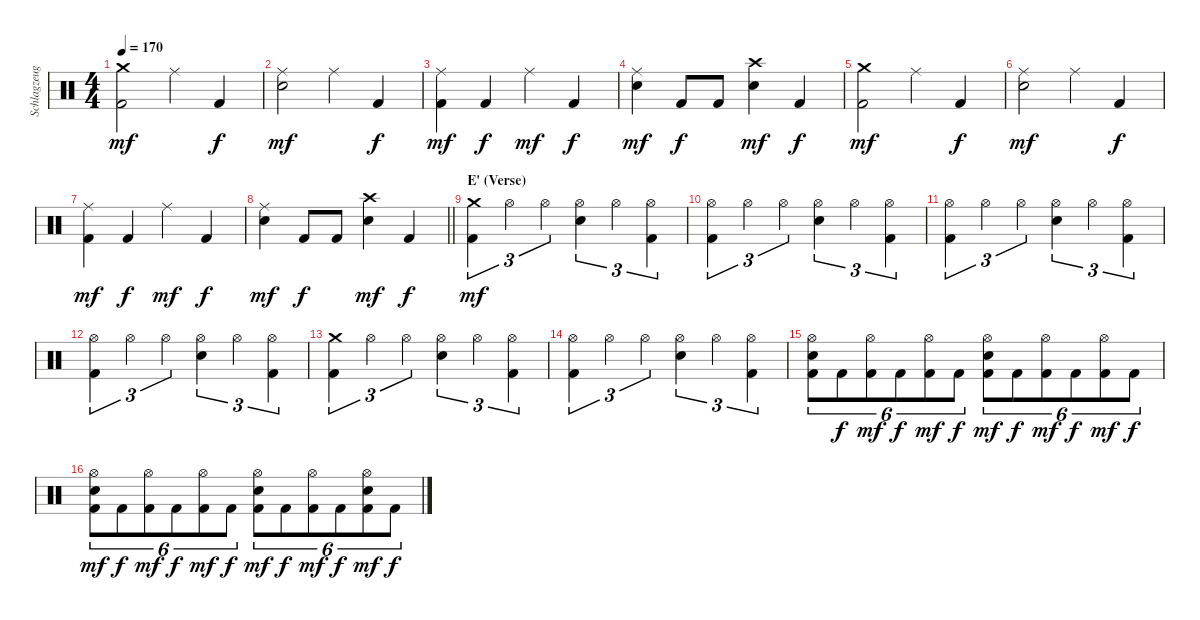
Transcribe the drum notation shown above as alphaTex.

\track ("Schlagzeug" "Schlagzeug") {instrument percussion}
\staff {score}
\articulation defaults
\ts (4 4)
\tempo 170
\clef neutral
\ks c
("Crash medium (hit)" "Kick (hit) 2").2{dy mf} "Ride (middle)".4 "Kick (hit) 2".4{dy f} |
("Ride (middle)" "Electric Snare (hit)").2{dy mf} "Ride (middle)".4 "Kick (hit) 2".4{dy f} |
("Ride (middle)" "Kick (hit) 2").4{dy mf} "Kick (hit) 2".4{dy f} "Ride (middle)".4{dy mf} "Kick (hit) 2".4{dy f} |
("Ride (middle)" "Electric Snare (hit)").4{dy mf} "Kick (hit) 2".8{dy f} "Kick (hit) 2".8 ("Crash high (hit)" "Electric Snare (hit)").4{dy mf} "Kick (hit) 2".4{dy f} |
("Crash medium (hit)" "Kick (hit) 2").2{dy mf} "Ride (middle)".4 "Kick (hit) 2".4{dy f} |
("Ride (middle)" "Electric Snare (hit)").2{dy mf} "Ride (middle)".4 "Kick (hit) 2".4{dy f} |
("Ride (middle)" "Kick (hit) 2").4{dy mf} "Kick (hit) 2".4{dy f} "Ride (middle)".4{dy mf} "Kick (hit) 2".4{dy f} |
\barLineRight lightlight
("Ride (middle)" "Electric Snare (hit)").4{dy mf} "Kick (hit) 2".8{dy f} "Kick (hit) 2".8 ("Crash high (hit)" "Electric Snare (hit)").4{dy mf} "Kick (hit) 2".4{dy f} |
\section ("" "E' (Verse)")
("Crash medium (hit)" "Kick (hit) 2").4{tu (3 2) dy mf} "Hi-Hat (open)".4{tu (3 2)} "Hi-Hat (open)".4{tu (3 2)} ("Hi-Hat (open)" "Electric Snare (hit)").4{tu (3 2)} "Hi-Hat (open)".4{tu (3 2)} ("Hi-Hat (open)" "Kick (hit) 2").4{tu (3 2)} |
("Hi-Hat (open)" "Kick (hit) 2").4{tu (3 2)} "Hi-Hat (open)".4{tu (3 2)} "Hi-Hat (open)".4{tu (3 2)} ("Hi-Hat (open)" "Electric Snare (hit)").4{tu (3 2)} "Hi-Hat (open)".4{tu (3 2)} ("Hi-Hat (open)" "Kick (hit) 2").4{tu (3 2)} |
("Hi-Hat (open)" "Kick (hit) 2").4{tu (3 2)} "Hi-Hat (open)".4{tu (3 2)} "Hi-Hat (open)".4{tu (3 2)} ("Hi-Hat (open)" "Electric Snare (hit)").4{tu (3 2)} "Hi-Hat (open)".4{tu (3 2)} ("Hi-Hat (open)" "Kick (hit) 2").4{tu (3 2)} |
("Hi-Hat (open)" "Kick (hit) 2").4{tu (3 2)} "Hi-Hat (open)".4{tu (3 2)} "Hi-Hat (open)".4{tu (3 2)} ("Hi-Hat (open)" "Electric Snare (hit)").4{tu (3 2)} "Hi-Hat (open)".4{tu (3 2)} ("Hi-Hat (open)" "Kick (hit) 2").4{tu (3 2)} |
("Crash medium (hit)" "Kick (hit) 2").4{tu (3 2)} "Hi-Hat (open)".4{tu (3 2)} "Hi-Hat (open)".4{tu (3 2)} ("Hi-Hat (open)" "Electric Snare (hit)").4{tu (3 2)} "Hi-Hat (open)".4{tu (3 2)} ("Hi-Hat (open)" "Kick (hit) 2").4{tu (3 2)} |
("Hi-Hat (open)" "Kick (hit) 2").4{tu (3 2)} "Hi-Hat (open)".4{tu (3 2)} "Hi-Hat (open)".4{tu (3 2)} ("Hi-Hat (open)" "Electric Snare (hit)").4{tu (3 2)} "Hi-Hat (open)".4{tu (3 2)} ("Hi-Hat (open)" "Kick (hit) 2").4{tu (3 2)} |
("Hi-Hat (open)" "Electric Snare (hit)" "Kick (hit) 2").8{tu (6 4)} "Kick (hit) 2".8{tu (6 4) dy f} ("Hi-Hat (open)" "Kick (hit) 2").8{tu (6 4) dy mf} "Kick (hit) 2".8{tu (6 4) dy f} ("Hi-Hat (open)" "Kick (hit) 2").8{tu (6 4) dy mf} "Kick (hit) 2".8{tu (6 4) dy f} ("Hi-Hat (open)" "Electric Snare (hit)" "Kick (hit) 2").8{tu (6 4) dy mf} "Kick (hit) 2".8{tu (6 4) dy f} ("Hi-Hat (open)" "Kick (hit) 2").8{tu (6 4) dy mf} "Kick (hit) 2".8{tu (6 4) dy f} ("Hi-Hat (open)" "Kick (hit) 2").8{tu (6 4) dy mf} "Kick (hit) 2".8{tu (6 4) dy f} |
("Hi-Hat (open)" "Electric Snare (hit)" "Kick (hit) 2").8{tu (6 4) dy mf} "Kick (hit) 2".8{tu (6 4) dy f} ("Hi-Hat (open)" "Kick (hit) 2").8{tu (6 4) dy mf} "Kick (hit) 2".8{tu (6 4) dy f} ("Hi-Hat (open)" "Kick (hit) 2").8{tu (6 4) dy mf} "Kick (hit) 2".8{tu (6 4) dy f} ("Hi-Hat (open)" "Electric Snare (hit)" "Kick (hit) 2").8{tu (6 4) dy mf} "Kick (hit) 2".8{tu (6 4) dy f} ("Hi-Hat (open)" "Kick (hit) 2").8{tu (6 4) dy mf} "Kick (hit) 2".8{tu (6 4) dy f} ("Hi-Hat (open)" "Electric Snare (hit)" "Kick (hit) 2").8{tu (6 4) dy mf} "Kick (hit) 2".8{tu (6 4) dy f}
